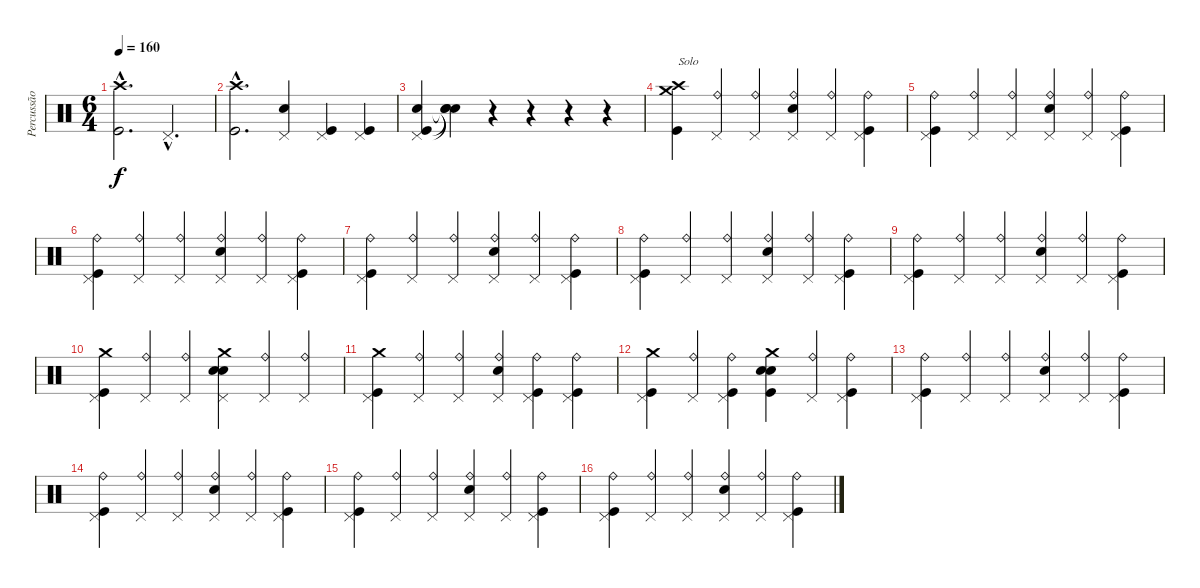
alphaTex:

\track ("Percussão" "Percussão") {instrument percussion}
\staff {score}
\articulation defaults
\ts (6 4)
\tempo 160
\clef neutral
\ks c
("Crash high (hit)"{hac} "Kick (hit)"{hac}).2{d dy f} "Pedal Hi-Hat (hit)"{hac}.2{d} |
("Crash high (hit)"{hac} "Kick (hit)"{hac}).2{d} ("Pedal Hi-Hat (hit)" "Snare (hit) 2").4 ("Pedal Hi-Hat (hit)" "Kick (hit)").4 ("Pedal Hi-Hat (hit)" "Kick (hit)").4 |
("Pedal Hi-Hat (hit)" "Snare (hit) 2" "Kick (hit)").4 ("Snare (hit)"{t} "Snare (hit)"{t} "Snare (hit)"{t}).4 r.4 r.4 r.4 r.4 |
("Crash high (hit)" "Crash medium (hit)" "Kick (hit)").4{txt "Solo"} ("Ride (bell)" "Pedal Hi-Hat (hit)").4 ("Ride (bell)" "Pedal Hi-Hat (hit)").4 ("Ride (bell)" "Pedal Hi-Hat (hit)" "Snare (hit) 2").4 ("Ride (bell)" "Pedal Hi-Hat (hit)").4 ("Ride (bell)" "Pedal Hi-Hat (hit)" "Kick (hit)").4 |
("Ride (bell)" "Pedal Hi-Hat (hit)" "Kick (hit)").4 ("Ride (bell)" "Pedal Hi-Hat (hit)").4 ("Ride (bell)" "Pedal Hi-Hat (hit)").4 ("Ride (bell)" "Pedal Hi-Hat (hit)" "Snare (hit) 2").4 ("Ride (bell)" "Pedal Hi-Hat (hit)").4 ("Ride (bell)" "Pedal Hi-Hat (hit)" "Kick (hit)").4 |
("Ride (bell)" "Pedal Hi-Hat (hit)" "Kick (hit)").4 ("Ride (bell)" "Pedal Hi-Hat (hit)").4 ("Ride (bell)" "Pedal Hi-Hat (hit)").4 ("Ride (bell)" "Pedal Hi-Hat (hit)" "Snare (hit) 2").4 ("Ride (bell)" "Pedal Hi-Hat (hit)").4 ("Ride (bell)" "Pedal Hi-Hat (hit)" "Kick (hit)").4 |
("Ride (bell)" "Pedal Hi-Hat (hit)" "Kick (hit)").4 ("Ride (bell)" "Pedal Hi-Hat (hit)").4 ("Ride (bell)" "Pedal Hi-Hat (hit)").4 ("Ride (bell)" "Pedal Hi-Hat (hit)" "Snare (hit) 2").4 ("Ride (bell)" "Pedal Hi-Hat (hit)").4 ("Ride (bell)" "Pedal Hi-Hat (hit)" "Kick (hit)").4 |
("Ride (bell)" "Pedal Hi-Hat (hit)" "Kick (hit)").4 ("Ride (bell)" "Pedal Hi-Hat (hit)").4 ("Ride (bell)" "Pedal Hi-Hat (hit)").4 ("Ride (bell)" "Pedal Hi-Hat (hit)" "Snare (hit) 2").4 ("Ride (bell)" "Pedal Hi-Hat (hit)").4 ("Ride (bell)" "Pedal Hi-Hat (hit)" "Kick (hit)").4 |
("Ride (bell)" "Pedal Hi-Hat (hit)" "Kick (hit)").4 ("Ride (bell)" "Pedal Hi-Hat (hit)").4 ("Ride (bell)" "Pedal Hi-Hat (hit)").4 ("Ride (bell)" "Pedal Hi-Hat (hit)" "Snare (hit) 2").4 ("Ride (bell)" "Pedal Hi-Hat (hit)").4 ("Ride (bell)" "Pedal Hi-Hat (hit)" "Kick (hit)").4 |
("Crash medium (hit)" "Pedal Hi-Hat (hit)" "Kick (hit)").4 ("Ride (bell)" "Pedal Hi-Hat (hit)").4 ("Ride (bell)" "Pedal Hi-Hat (hit)").4 ("Crash medium (hit)" "Pedal Hi-Hat (hit)" "Snare (hit) 2" "Snare (hit) 2").4 ("Ride (bell)" "Pedal Hi-Hat (hit)").4 ("Ride (bell)" "Pedal Hi-Hat (hit)").4 |
("Crash medium (hit)" "Pedal Hi-Hat (hit)" "Kick (hit)").4 ("Ride (bell)" "Pedal Hi-Hat (hit)").4 ("Ride (bell)" "Pedal Hi-Hat (hit)").4 ("Ride (bell)" "Pedal Hi-Hat (hit)" "Snare (hit) 2").4 ("Ride (bell)" "Pedal Hi-Hat (hit)" "Kick (hit)").4 ("Ride (bell)" "Pedal Hi-Hat (hit)" "Kick (hit)").4 |
("Crash medium (hit)" "Pedal Hi-Hat (hit)" "Kick (hit)").4 ("Ride (bell)" "Pedal Hi-Hat (hit)").4 ("Ride (bell)" "Pedal Hi-Hat (hit)" "Kick (hit)").4 ("Crash medium (hit)" "Snare (hit) 2" "Snare (hit) 2" "Kick (hit)").4 ("Ride (bell)" "Pedal Hi-Hat (hit)").4 ("Ride (bell)" "Pedal Hi-Hat (hit)" "Kick (hit)").4 |
("Ride (bell)" "Pedal Hi-Hat (hit)" "Kick (hit)").4 ("Ride (bell)" "Pedal Hi-Hat (hit)").4 ("Ride (bell)" "Pedal Hi-Hat (hit)").4 ("Ride (bell)" "Pedal Hi-Hat (hit)" "Snare (hit) 2").4 ("Ride (bell)" "Pedal Hi-Hat (hit)").4 ("Ride (bell)" "Pedal Hi-Hat (hit)" "Kick (hit)").4 |
("Ride (bell)" "Pedal Hi-Hat (hit)" "Kick (hit)").4 ("Ride (bell)" "Pedal Hi-Hat (hit)").4 ("Ride (bell)" "Pedal Hi-Hat (hit)").4 ("Ride (bell)" "Pedal Hi-Hat (hit)" "Snare (hit) 2").4 ("Ride (bell)" "Pedal Hi-Hat (hit)").4 ("Ride (bell)" "Pedal Hi-Hat (hit)" "Kick (hit)").4 |
("Ride (bell)" "Pedal Hi-Hat (hit)" "Kick (hit)").4 ("Ride (bell)" "Pedal Hi-Hat (hit)").4 ("Ride (bell)" "Pedal Hi-Hat (hit)").4 ("Ride (bell)" "Pedal Hi-Hat (hit)" "Snare (hit) 2").4 ("Ride (bell)" "Pedal Hi-Hat (hit)").4 ("Ride (bell)" "Pedal Hi-Hat (hit)" "Kick (hit)").4 |
("Ride (bell)" "Pedal Hi-Hat (hit)" "Kick (hit)").4 ("Ride (bell)" "Pedal Hi-Hat (hit)").4 ("Ride (bell)" "Pedal Hi-Hat (hit)").4 ("Ride (bell)" "Pedal Hi-Hat (hit)" "Snare (hit) 2").4 ("Ride (bell)" "Pedal Hi-Hat (hit)").4 ("Ride (bell)" "Pedal Hi-Hat (hit)" "Kick (hit)").4
